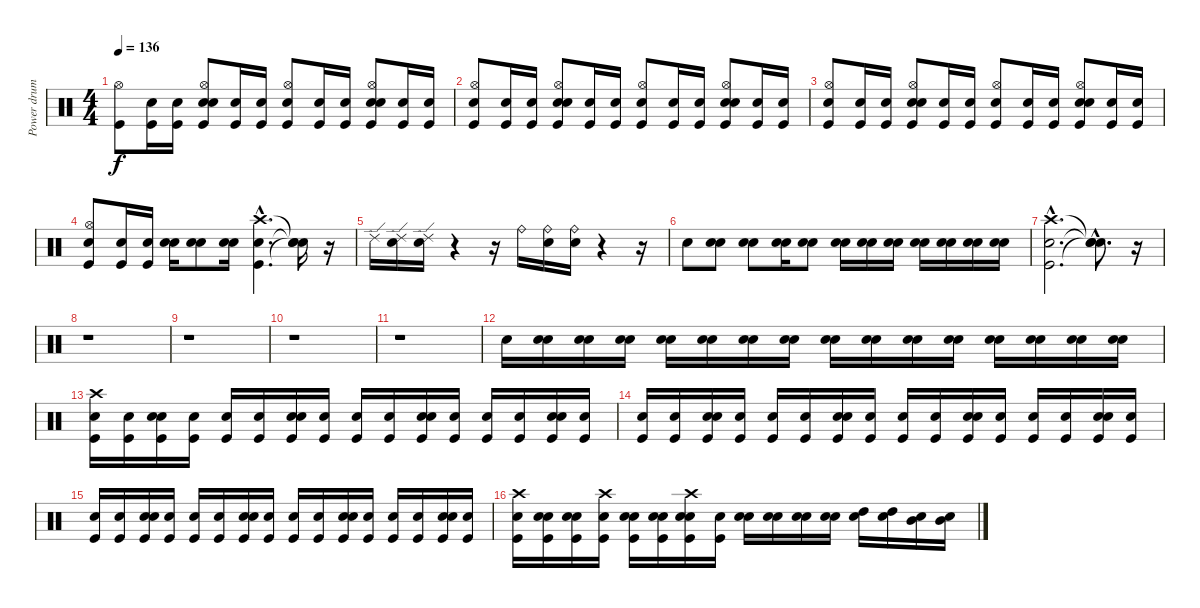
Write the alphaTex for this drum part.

\track ("Power drums" "Power drum") {instrument percussion}
\staff {score}
\articulation defaults
\ts (4 4)
\tempo 136
\clef neutral
\ks c
("Kick (hit)" "Hi-Hat (open)").8{dy f} ("Snare (hit)" "Kick (hit)").16 ("Snare (hit)" "Kick (hit)").16 ("Snare (hit)" "Kick (hit)" "Snare (hit) 2" "Hi-Hat (open)").8 ("Snare (hit)" "Kick (hit)").16 ("Snare (hit)" "Kick (hit)").16 ("Snare (hit)" "Kick (hit)" "Hi-Hat (open)").8 ("Snare (hit)" "Kick (hit)").16 ("Snare (hit)" "Kick (hit)").16 ("Snare (hit)" "Kick (hit)" "Snare (hit) 2" "Hi-Hat (open)").8 ("Snare (hit)" "Kick (hit)").16 ("Snare (hit)" "Kick (hit)").16 |
("Snare (hit)" "Kick (hit)" "Hi-Hat (open)").8 ("Snare (hit)" "Kick (hit)").16 ("Snare (hit)" "Kick (hit)").16 ("Snare (hit)" "Kick (hit)" "Snare (hit) 2" "Hi-Hat (open)").8 ("Snare (hit)" "Kick (hit)").16 ("Snare (hit)" "Kick (hit)").16 ("Snare (hit)" "Kick (hit)" "Hi-Hat (open)").8 ("Snare (hit)" "Kick (hit)").16 ("Snare (hit)" "Kick (hit)").16 ("Snare (hit)" "Kick (hit)" "Snare (hit) 2" "Hi-Hat (open)").8 ("Snare (hit)" "Kick (hit)").16 ("Snare (hit)" "Kick (hit)").16 |
("Snare (hit)" "Kick (hit)" "Hi-Hat (open)").8 ("Snare (hit)" "Kick (hit)").16 ("Snare (hit)" "Kick (hit)").16 ("Snare (hit)" "Kick (hit)" "Snare (hit) 2" "Hi-Hat (open)").8 ("Snare (hit)" "Kick (hit)").16 ("Snare (hit)" "Kick (hit)").16 ("Snare (hit)" "Kick (hit)" "Hi-Hat (open)").8 ("Snare (hit)" "Kick (hit)").16 ("Snare (hit)" "Kick (hit)").16 ("Snare (hit)" "Kick (hit)" "Snare (hit) 2" "Hi-Hat (open)").8 ("Snare (hit)" "Kick (hit)").16 ("Snare (hit)" "Kick (hit)").16 |
("Snare (hit)" "Kick (hit)" "Hi-Hat (open)").8 ("Snare (hit)" "Kick (hit)").16 ("Snare (hit)" "Kick (hit)").16 ("Snare (hit)" "Snare (hit) 2").16 ("Snare (hit)" "Snare (hit) 2").8 ("Snare (hit)" "Snare (hit) 2").16 ("Snare (hit)"{hac} "Kick (hit)"{hac} "Crash high (hit)"{hac}).4{d} ("Snare (hit)"{t} "Snare (hit)"{t} "Snare (hit)"{t}).16 r.16 |
"Ride (edge) 2".16 ("Snare (hit)" "Ride (edge) 2").16 ("Snare (hit)" "Ride (edge) 2").16 r.4 r.16 "Ride (bell)".16 ("Snare (hit)" "Ride (bell)").16 ("Snare (hit)" "Ride (bell)").16 r.4 r.16 |
"Snare (hit) 2".8 ("Snare (hit)" "Snare (hit) 2").8 ("Snare (hit)" "Snare (hit) 2").8 ("Snare (hit)" "Snare (hit) 2").16 ("Snare (hit)" "Snare (hit) 2").8 ("Snare (hit)" "Snare (hit) 2").16 ("Snare (hit)" "Snare (hit) 2").16 ("Snare (hit)" "Snare (hit) 2").16 ("Snare (hit)" "Snare (hit) 2").16 ("Snare (hit)" "Snare (hit) 2").16 ("Snare (hit)" "Snare (hit) 2").16 ("Snare (hit)" "Snare (hit) 2").16 |
("Snare (hit)"{hac} "Kick (hit)"{hac} "Crash high (hit)"{hac}).2{d} ("Snare (hit)"{hac t} "Snare (hit)"{hac t} "Snare (hit)"{hac t}).8{d} r.16 |
r.1 |
r.1 |
r.1 |
r.1 |
"Snare (hit) 2".16 ("Snare (hit)" "Snare (hit) 2").16 ("Snare (hit)" "Snare (hit) 2").16 ("Snare (hit)" "Snare (hit) 2").16 ("Snare (hit)" "Snare (hit) 2").16 ("Snare (hit)" "Snare (hit) 2").16 ("Snare (hit)" "Snare (hit) 2").16 ("Snare (hit)" "Snare (hit) 2").16 ("Snare (hit)" "Snare (hit) 2").16 ("Snare (hit)" "Snare (hit) 2").16 ("Snare (hit)" "Snare (hit) 2").16 ("Snare (hit)" "Snare (hit) 2").16 ("Snare (hit)" "Snare (hit) 2").16 ("Snare (hit)" "Snare (hit) 2").16 ("Snare (hit)" "Snare (hit) 2").16 ("Snare (hit)" "Snare (hit) 2").16 |
("Snare (hit)" "Kick (hit)" "Crash high (hit)").16 ("Snare (hit)" "Kick (hit)").16 ("Snare (hit)" "Kick (hit)" "Snare (hit) 2").16 ("Snare (hit)" "Kick (hit)").16 ("Snare (hit)" "Kick (hit)").16 ("Snare (hit)" "Kick (hit)").16 ("Snare (hit)" "Kick (hit)" "Snare (hit) 2").16 ("Snare (hit)" "Kick (hit)").16 ("Snare (hit)" "Kick (hit)").16 ("Snare (hit)" "Kick (hit)").16 ("Snare (hit)" "Kick (hit)" "Snare (hit) 2").16 ("Snare (hit)" "Kick (hit)").16 ("Snare (hit)" "Kick (hit)").16 ("Snare (hit)" "Kick (hit)").16 ("Snare (hit)" "Kick (hit)" "Snare (hit) 2").16 ("Snare (hit)" "Kick (hit)").16 |
("Snare (hit)" "Kick (hit)").16 ("Snare (hit)" "Kick (hit)").16 ("Snare (hit)" "Kick (hit)" "Snare (hit) 2").16 ("Snare (hit)" "Kick (hit)").16 ("Snare (hit)" "Kick (hit)").16 ("Snare (hit)" "Kick (hit)").16 ("Snare (hit)" "Kick (hit)" "Snare (hit) 2").16 ("Snare (hit)" "Kick (hit)").16 ("Snare (hit)" "Kick (hit)").16 ("Snare (hit)" "Kick (hit)").16 ("Snare (hit)" "Kick (hit)" "Snare (hit) 2").16 ("Snare (hit)" "Kick (hit)").16 ("Snare (hit)" "Kick (hit)").16 ("Snare (hit)" "Kick (hit)").16 ("Snare (hit)" "Kick (hit)" "Snare (hit) 2").16 ("Snare (hit)" "Kick (hit)").16 |
("Snare (hit)" "Kick (hit)").16 ("Snare (hit)" "Kick (hit)").16 ("Snare (hit)" "Kick (hit)" "Snare (hit) 2").16 ("Snare (hit)" "Kick (hit)").16 ("Snare (hit)" "Kick (hit)").16 ("Snare (hit)" "Kick (hit)").16 ("Snare (hit)" "Kick (hit)" "Snare (hit) 2").16 ("Snare (hit)" "Kick (hit)").16 ("Snare (hit)" "Kick (hit)").16 ("Snare (hit)" "Kick (hit)").16 ("Snare (hit)" "Kick (hit)" "Snare (hit) 2").16 ("Snare (hit)" "Kick (hit)").16 ("Snare (hit)" "Kick (hit)").16 ("Snare (hit)" "Kick (hit)").16 ("Snare (hit)" "Kick (hit)" "Snare (hit) 2").16 ("Snare (hit)" "Kick (hit)").16 |
("Snare (hit)" "Kick (hit)" "Crash high (hit)").16 ("Snare (hit)" "Kick (hit)" "Snare (hit) 2").16 ("Snare (hit)" "Kick (hit)" "Snare (hit) 2").16 ("Snare (hit)" "Kick (hit)" "Crash high (hit)").16 ("Snare (hit)" "Kick (hit)" "Snare (hit) 2").16 ("Snare (hit)" "Kick (hit)" "Snare (hit) 2").16 ("Snare (hit)" "Kick (hit)" "Snare (hit) 2" "Crash high (hit)").16 ("Snare (hit)" "Kick (hit)").16 ("Snare (hit)" "Snare (hit) 2").16 ("Snare (hit)" "Snare (hit) 2").16 ("Snare (hit)" "Snare (hit) 2").16 ("Snare (hit)" "Snare (hit) 2").16 ("Snare (hit)" "High Tom (hit)").16 ("Snare (hit)" "High Tom (hit)").16 ("Snare (hit)" "Mid Tom (hit)").16 ("Snare (hit)" "Mid Tom (hit)").16
